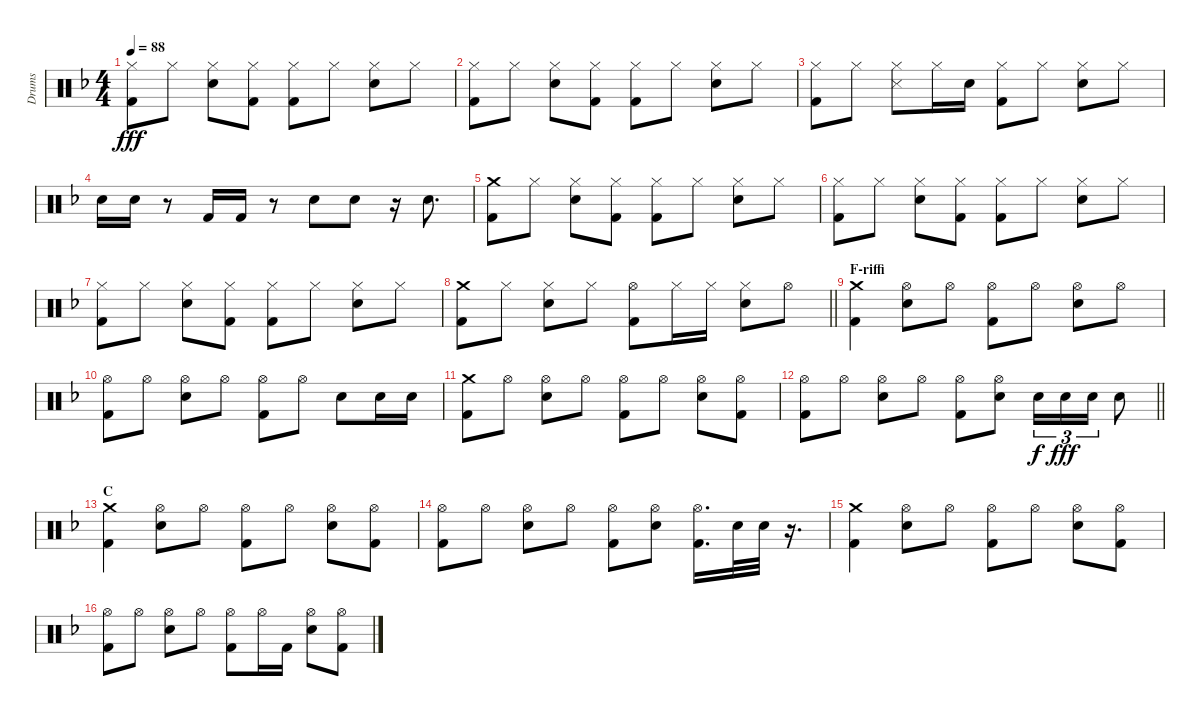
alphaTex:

\track ("Drums" "Drums") {instrument percussion}
\staff {score}
\articulation defaults
\ts (4 4)
\tempo 88
\clef neutral
\ks dminor
("Hi-Hat (closed)" "Kick (hit) 2").8{dy fff} "Hi-Hat (closed)".8 ("Hi-Hat (closed)" "Snare (hit) 2").8 ("Hi-Hat (closed)" "Kick (hit) 2").8 ("Hi-Hat (closed)" "Kick (hit) 2").8 "Hi-Hat (closed)".8 ("Hi-Hat (closed)" "Snare (hit) 2").8 "Hi-Hat (closed)".8 |
("Hi-Hat (closed)" "Kick (hit) 2").8 "Hi-Hat (closed)".8 ("Hi-Hat (closed)" "Snare (hit) 2").8 ("Hi-Hat (closed)" "Kick (hit) 2").8 ("Hi-Hat (closed)" "Kick (hit) 2").8 "Hi-Hat (closed)".8 ("Hi-Hat (closed)" "Snare (hit) 2").8 "Hi-Hat (closed)".8 |
("Hi-Hat (closed)" "Kick (hit) 2").8 "Hi-Hat (closed)".8 ("Hi-Hat (closed)" "Snare (side stick) 3").8 "Hi-Hat (closed)".16 "Snare (hit) 2".16 ("Hi-Hat (closed)" "Kick (hit) 2").8 "Hi-Hat (closed)".8 ("Hi-Hat (closed)" "Snare (hit) 2").8 "Hi-Hat (closed)".8 |
"Snare (hit) 2".16 "Snare (hit) 2".16 r.8 "Kick (hit) 2".16 "Kick (hit) 2".16 r.8 "Snare (hit) 2".8 "Snare (hit) 2".8 r.16 "Snare (hit) 2".8{d} |
("Crash medium (hit)" "Kick (hit) 2").8 "Hi-Hat (closed)".8 ("Hi-Hat (closed)" "Snare (hit) 2").8 ("Hi-Hat (closed)" "Kick (hit) 2").8 ("Hi-Hat (closed)" "Kick (hit) 2").8 "Hi-Hat (closed)".8 ("Hi-Hat (closed)" "Snare (hit) 2").8 "Hi-Hat (closed)".8 |
("Hi-Hat (closed)" "Kick (hit) 2").8 "Hi-Hat (closed)".8 ("Hi-Hat (closed)" "Snare (hit) 2").8 ("Hi-Hat (closed)" "Kick (hit) 2").8 ("Hi-Hat (closed)" "Kick (hit) 2").8 "Hi-Hat (closed)".8 ("Hi-Hat (closed)" "Snare (hit) 2").8 "Hi-Hat (closed)".8 |
("Hi-Hat (closed)" "Kick (hit) 2").8 "Hi-Hat (closed)".8 ("Hi-Hat (closed)" "Snare (hit) 2").8 ("Hi-Hat (closed)" "Kick (hit) 2").8 ("Hi-Hat (closed)" "Kick (hit) 2").8 "Hi-Hat (closed)".8 ("Hi-Hat (closed)" "Snare (hit) 2").8 "Hi-Hat (closed)".8 |
\barLineRight lightlight
("Crash medium (hit)" "Kick (hit) 2").8 "Hi-Hat (closed)".8 ("Hi-Hat (closed)" "Snare (hit) 2").8 "Hi-Hat (closed)".8 ("Hi-Hat (open)" "Kick (hit) 2").8 "Hi-Hat (closed)".16 "Hi-Hat (closed)".16 ("Hi-Hat (closed)" "Snare (hit) 2").8 "Hi-Hat (open)".8 |
\section ("" "F-riffi")
("Crash medium (hit)" "Kick (hit) 2").4 ("Hi-Hat (open)" "Snare (hit) 2").8 "Hi-Hat (open)".8 ("Hi-Hat (open)" "Kick (hit) 2").8 "Hi-Hat (open)".8 ("Hi-Hat (open)" "Snare (hit) 2").8 "Hi-Hat (open)".8 |
("Hi-Hat (open)" "Kick (hit) 2").8 "Hi-Hat (open)".8 ("Hi-Hat (open)" "Snare (hit) 2").8 "Hi-Hat (open)".8 ("Hi-Hat (open)" "Kick (hit) 2").8 "Hi-Hat (open)".8 "Snare (hit) 2".8 "Snare (hit) 2".16 "Snare (hit) 2".16 |
("Crash medium (hit)" "Kick (hit) 2").8 "Hi-Hat (open)".8 ("Hi-Hat (open)" "Snare (hit) 2").8 "Hi-Hat (open)".8 ("Hi-Hat (open)" "Kick (hit) 2").8 "Hi-Hat (open)".8 ("Hi-Hat (open)" "Snare (hit) 2").8 ("Hi-Hat (open)" "Kick (hit) 2").8 |
\barLineRight lightlight
("Hi-Hat (open)" "Kick (hit) 2").8 "Hi-Hat (open)".8 ("Hi-Hat (open)" "Snare (hit) 2").8 "Hi-Hat (open)".8 ("Hi-Hat (open)" "Kick (hit) 2").8 ("Hi-Hat (open)" "Snare (hit) 2").8 "Snare (hit) 2".16{tu (3 2) dy f} "Snare (hit) 2".16{tu (3 2) dy fff} "Snare (hit) 2".16{tu (3 2)} "Snare (hit) 2".8 |
\section ("" "C")
("Crash medium (hit)" "Kick (hit) 2").4 ("Hi-Hat (open)" "Snare (hit) 2").8 "Hi-Hat (open)".8 ("Hi-Hat (open)" "Kick (hit) 2").8 "Hi-Hat (open)".8 ("Hi-Hat (open)" "Snare (hit) 2").8 ("Hi-Hat (open)" "Kick (hit) 2").8 |
("Hi-Hat (open)" "Kick (hit) 2").8 "Hi-Hat (open)".8 ("Hi-Hat (open)" "Snare (hit) 2").8 "Hi-Hat (open)".8 ("Hi-Hat (open)" "Kick (hit) 2").8 ("Hi-Hat (open)" "Snare (hit) 2").8 ("Hi-Hat (open)" "Kick (hit) 2").16{d} "Snare (hit) 2".32 "Snare (hit) 2".32 r.16{d} |
("Crash medium (hit)" "Kick (hit) 2").4 ("Hi-Hat (open)" "Snare (hit) 2").8 "Hi-Hat (open)".8 ("Hi-Hat (open)" "Kick (hit) 2").8 "Hi-Hat (open)".8 ("Hi-Hat (open)" "Snare (hit) 2").8 ("Hi-Hat (open)" "Kick (hit) 2").8 |
("Hi-Hat (open)" "Kick (hit) 2").8 "Hi-Hat (open)".8 ("Hi-Hat (open)" "Snare (hit) 2").8 "Hi-Hat (open)".8 ("Hi-Hat (open)" "Kick (hit) 2").8 "Hi-Hat (open)".16 "Kick (hit) 2".16 ("Hi-Hat (open)" "Snare (hit) 2").8 ("Hi-Hat (open)" "Kick (hit) 2").8
